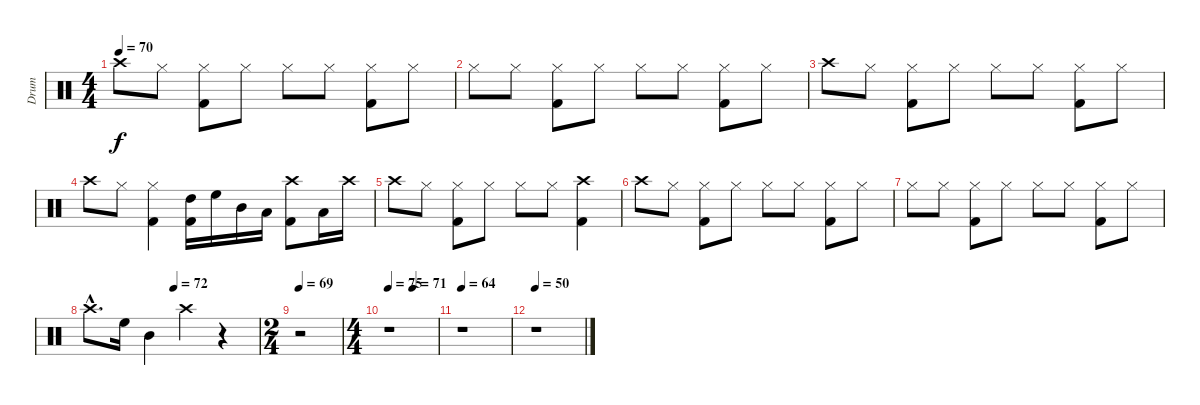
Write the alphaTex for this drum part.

\track ("Drum" "Drum") {instrument percussion}
\staff {score}
\articulation defaults
\ts (4 4)
\tempo 70
\clef neutral
\ks c "Crash high (hit)".8{dy f} "Hi-Hat (closed)".8
("Hi-Hat (closed)" "Kick (hit) 2").8 "Hi-Hat (closed)".8 "Hi-Hat (closed)".8 "Hi-Hat (closed)".8 ("Hi-Hat (closed)" "Kick (hit) 2").8 "Hi-Hat (closed)".8 |
"Hi-Hat (closed)".8 "Hi-Hat (closed)".8 ("Hi-Hat (closed)" "Kick (hit) 2").8 "Hi-Hat (closed)".8 "Hi-Hat (closed)".8 "Hi-Hat (closed)".8 ("Hi-Hat (closed)" "Kick (hit) 2").8 "Hi-Hat (closed)".8 |
"Crash high (hit)".8 "Hi-Hat (closed)".8 ("Hi-Hat (closed)" "Kick (hit) 2").8 "Hi-Hat (closed)".8 "Hi-Hat (closed)".8 "Hi-Hat (closed)".8 ("Hi-Hat (closed)" "Kick (hit) 2").8 "Hi-Hat (closed)".8 |
"Crash high (hit)".8 "Hi-Hat (closed)".8 ("Hi-Hat (closed)" "Kick (hit) 2").4 ("High Tom (hit)" "Kick (hit) 2").16 "High Floor Tom (hit)".16 "Mid Tom (hit)".16 "Low Tom (hit)".16 ("Crash high (hit)" "Kick (hit) 2").8 "Low Tom (hit)".16 "Crash high (hit)".16 |
"Crash high (hit)".8 "Hi-Hat (closed)".8 ("Hi-Hat (closed)" "Kick (hit) 2").8 "Hi-Hat (closed)".8 "Hi-Hat (closed)".8 "Hi-Hat (closed)".8 ("Crash high (hit)" "Kick (hit) 2").4 |
"Crash high (hit)".8 "Hi-Hat (closed)".8 ("Hi-Hat (closed)" "Kick (hit) 2").8 "Hi-Hat (closed)".8 "Hi-Hat (closed)".8 "Hi-Hat (closed)".8 ("Hi-Hat (closed)" "Kick (hit) 2").8 "Hi-Hat (closed)".8 |
"Hi-Hat (closed)".8 "Hi-Hat (closed)".8 ("Hi-Hat (closed)" "Kick (hit) 2").8 "Hi-Hat (closed)".8 "Hi-Hat (closed)".8 "Hi-Hat (closed)".8 ("Hi-Hat (closed)" "Kick (hit) 2").8 "Hi-Hat (closed)".8 |
\tempo (72 0.5)
"Crash high (hit)"{hac}.8{d} "High Floor Tom (hit)".16 "Mid Tom (hit)".4 "Crash high (hit)".4 r.4 |
\ts (2 4)
\tempo 69
r.2 |
\ts (4 4)
\tempo 75
\tempo (71 0.5)
r.1 |
\tempo 64
r.1 |
\tempo 50
r.1
